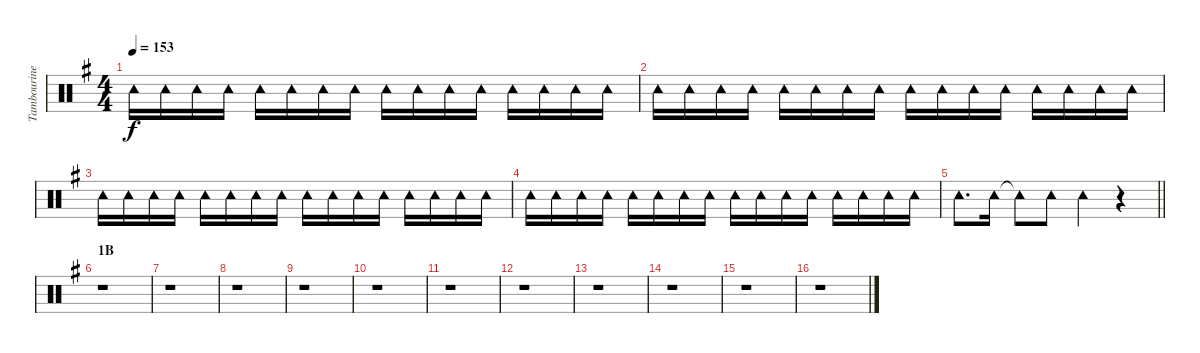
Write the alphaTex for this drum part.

\track ("Tambourine" "Tambourine") {instrument percussion}
\staff {score}
\articulation defaults
\ts (4 4)
\tempo 153
\clef neutral
\ks g "Tambourine (hit)".16{dy f} "Tambourine (hit)".16 "Tambourine (hit)".16 "Tambourine (hit)".16 "Tambourine (hit)".16 "Tambourine (hit)".16 "Tambourine (hit)".16 "Tambourine (hit)".16 "Tambourine (hit)".16 "Tambourine (hit)".16 "Tambourine (hit)".16 "Tambourine (hit)".16 "Tambourine (hit)".16 "Tambourine (hit)".16 "Tambourine (hit)".16 "Tambourine (hit)".16
|
"Tambourine (hit)".16 "Tambourine (hit)".16 "Tambourine (hit)".16 "Tambourine (hit)".16 "Tambourine (hit)".16 "Tambourine (hit)".16 "Tambourine (hit)".16 "Tambourine (hit)".16 "Tambourine (hit)".16 "Tambourine (hit)".16 "Tambourine (hit)".16 "Tambourine (hit)".16 "Tambourine (hit)".16 "Tambourine (hit)".16 "Tambourine (hit)".16 "Tambourine (hit)".16 |
"Tambourine (hit)".16 "Tambourine (hit)".16 "Tambourine (hit)".16 "Tambourine (hit)".16 "Tambourine (hit)".16 "Tambourine (hit)".16 "Tambourine (hit)".16 "Tambourine (hit)".16 "Tambourine (hit)".16 "Tambourine (hit)".16 "Tambourine (hit)".16 "Tambourine (hit)".16 "Tambourine (hit)".16 "Tambourine (hit)".16 "Tambourine (hit)".16 "Tambourine (hit)".16 |
"Tambourine (hit)".16 "Tambourine (hit)".16 "Tambourine (hit)".16 "Tambourine (hit)".16 "Tambourine (hit)".16 "Tambourine (hit)".16 "Tambourine (hit)".16 "Tambourine (hit)".16 "Tambourine (hit)".16 "Tambourine (hit)".16 "Tambourine (hit)".16 "Tambourine (hit)".16 "Tambourine (hit)".16 "Tambourine (hit)".16 "Tambourine (hit)".16 "Tambourine (hit)".16 |
\barLineRight lightlight "Tambourine (hit)".8{d} "Tambourine (hit)".16 "Tambourine (hit)"{t}.8 "Tambourine (hit)".8 "Tambourine (hit)".4
r.4 |
\section ("" "1B")
r.1 |
r.1 |
r.1 |
r.1 |
r.1 |
r.1 |
r.1 |
r.1 |
r.1 |
r.1 |
r.1
